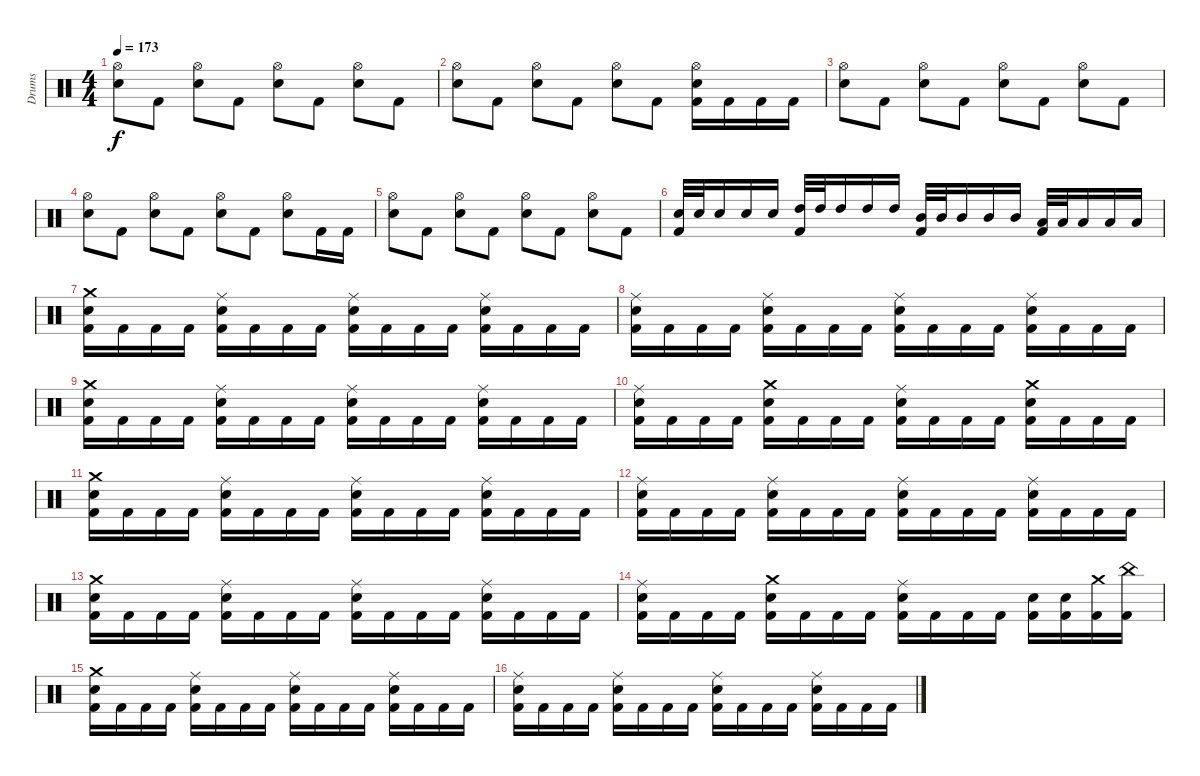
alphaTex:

\track ("Drums" "Drums") {instrument percussion}
\staff {score}
\articulation defaults
\ts (4 4)
\tempo 173
\clef neutral
\ks c
("Hi-Hat (open)" "Snare (hit) 2").8{dy f} "Kick (hit) 2".8 ("Hi-Hat (open)" "Snare (hit) 2").8 "Kick (hit) 2".8 ("Hi-Hat (open)" "Snare (hit) 2").8 "Kick (hit) 2".8 ("Hi-Hat (open)" "Snare (hit) 2").8 "Kick (hit) 2".8 |
("Hi-Hat (open)" "Snare (hit) 2").8 "Kick (hit) 2".8 ("Hi-Hat (open)" "Snare (hit) 2").8 "Kick (hit) 2".8 ("Hi-Hat (open)" "Snare (hit) 2").8 "Kick (hit) 2".8 ("Hi-Hat (open)" "Snare (hit) 2" "Kick (hit) 2").16 "Kick (hit) 2".16 "Kick (hit) 2".16 "Kick (hit) 2".16 |
("Hi-Hat (open)" "Snare (hit) 2").8 "Kick (hit) 2".8 ("Hi-Hat (open)" "Snare (hit) 2").8 "Kick (hit) 2".8 ("Hi-Hat (open)" "Snare (hit) 2").8 "Kick (hit) 2".8 ("Hi-Hat (open)" "Snare (hit) 2").8 "Kick (hit) 2".8 |
("Hi-Hat (open)" "Snare (hit) 2").8 "Kick (hit) 2".8 ("Hi-Hat (open)" "Snare (hit) 2").8 "Kick (hit) 2".8 ("Hi-Hat (open)" "Snare (hit) 2").8 "Kick (hit) 2".8 ("Hi-Hat (open)" "Snare (hit) 2").8 "Kick (hit) 2".16 "Kick (hit) 2".16 |
("Hi-Hat (open)" "Snare (hit) 2").8 "Kick (hit) 2".8 ("Hi-Hat (open)" "Snare (hit) 2").8 "Kick (hit) 2".8 ("Hi-Hat (open)" "Snare (hit) 2").8 "Kick (hit) 2".8 ("Hi-Hat (open)" "Snare (hit) 2").8 "Kick (hit) 2".8 |
("Snare (hit) 2" "Kick (hit) 2").32 "Snare (hit) 2".32 "Snare (hit) 2".16 "Snare (hit) 2".16 "Snare (hit) 2".16 ("High Tom (hit)" "Kick (hit) 2").32 "High Tom (hit)".32 "High Tom (hit)".16 "High Tom (hit)".16 "High Tom (hit)".16 ("Mid Tom (hit)" "Kick (hit) 2").32 "Mid Tom (hit)".32 "Mid Tom (hit)".16 "Mid Tom (hit)".16 "Mid Tom (hit)".16 ("Low Tom (hit)" "Kick (hit) 2").32 "Low Tom (hit)".32 "Low Tom (hit)".16 "Low Tom (hit)".16 "Low Tom (hit)".16 |
("Crash medium (hit)" "Snare (hit) 2" "Kick (hit) 2").16 "Kick (hit) 2".16 "Kick (hit) 2".16 "Kick (hit) 2".16 ("Ride (middle)" "Snare (hit) 2" "Kick (hit) 2").16 "Kick (hit) 2".16 "Kick (hit) 2".16 "Kick (hit) 2".16 ("Ride (middle)" "Snare (hit) 2" "Kick (hit) 2").16 "Kick (hit) 2".16 "Kick (hit) 2".16 "Kick (hit) 2".16 ("Ride (middle)" "Snare (hit) 2" "Kick (hit) 2").16 "Kick (hit) 2".16 "Kick (hit) 2".16 "Kick (hit) 2".16 |
("Ride (middle)" "Snare (hit) 2" "Kick (hit) 2").16 "Kick (hit) 2".16 "Kick (hit) 2".16 "Kick (hit) 2".16 ("Ride (middle)" "Snare (hit) 2" "Kick (hit) 2").16 "Kick (hit) 2".16 "Kick (hit) 2".16 "Kick (hit) 2".16 ("Ride (middle)" "Snare (hit) 2" "Kick (hit) 2").16 "Kick (hit) 2".16 "Kick (hit) 2".16 "Kick (hit) 2".16 ("Ride (middle)" "Snare (hit) 2" "Kick (hit) 2").16 "Kick (hit) 2".16 "Kick (hit) 2".16 "Kick (hit) 2".16 |
("Crash medium (hit)" "Snare (hit) 2" "Kick (hit) 2").16 "Kick (hit) 2".16 "Kick (hit) 2".16 "Kick (hit) 2".16 ("Ride (middle)" "Snare (hit) 2" "Kick (hit) 2").16 "Kick (hit) 2".16 "Kick (hit) 2".16 "Kick (hit) 2".16 ("Ride (middle)" "Snare (hit) 2" "Kick (hit) 2").16 "Kick (hit) 2".16 "Kick (hit) 2".16 "Kick (hit) 2".16 ("Ride (middle)" "Snare (hit) 2" "Kick (hit) 2").16 "Kick (hit) 2".16 "Kick (hit) 2".16 "Kick (hit) 2".16 |
("Ride (middle)" "Snare (hit) 2" "Kick (hit) 2").16 "Kick (hit) 2".16 "Kick (hit) 2".16 "Kick (hit) 2".16 ("Crash medium (hit)" "Snare (hit) 2" "Kick (hit) 2").16 "Kick (hit) 2".16 "Kick (hit) 2".16 "Kick (hit) 2".16 ("Ride (middle)" "Snare (hit) 2" "Kick (hit) 2").16 "Kick (hit) 2".16 "Kick (hit) 2".16 "Kick (hit) 2".16 ("Crash medium (hit)" "Snare (hit) 2" "Kick (hit) 2").16 "Kick (hit) 2".16 "Kick (hit) 2".16 "Kick (hit) 2".16 |
("Crash medium (hit)" "Snare (hit) 2" "Kick (hit) 2").16 "Kick (hit) 2".16 "Kick (hit) 2".16 "Kick (hit) 2".16 ("Ride (middle)" "Snare (hit) 2" "Kick (hit) 2").16 "Kick (hit) 2".16 "Kick (hit) 2".16 "Kick (hit) 2".16 ("Ride (middle)" "Snare (hit) 2" "Kick (hit) 2").16 "Kick (hit) 2".16 "Kick (hit) 2".16 "Kick (hit) 2".16 ("Ride (middle)" "Snare (hit) 2" "Kick (hit) 2").16 "Kick (hit) 2".16 "Kick (hit) 2".16 "Kick (hit) 2".16 |
("Ride (middle)" "Snare (hit) 2" "Kick (hit) 2").16 "Kick (hit) 2".16 "Kick (hit) 2".16 "Kick (hit) 2".16 ("Ride (middle)" "Snare (hit) 2" "Kick (hit) 2").16 "Kick (hit) 2".16 "Kick (hit) 2".16 "Kick (hit) 2".16 ("Ride (middle)" "Snare (hit) 2" "Kick (hit) 2").16 "Kick (hit) 2".16 "Kick (hit) 2".16 "Kick (hit) 2".16 ("Ride (middle)" "Snare (hit) 2" "Kick (hit) 2").16 "Kick (hit) 2".16 "Kick (hit) 2".16 "Kick (hit) 2".16 |
("Crash medium (hit)" "Snare (hit) 2" "Kick (hit) 2").16 "Kick (hit) 2".16 "Kick (hit) 2".16 "Kick (hit) 2".16 ("Ride (middle)" "Snare (hit) 2" "Kick (hit) 2").16 "Kick (hit) 2".16 "Kick (hit) 2".16 "Kick (hit) 2".16 ("Ride (middle)" "Snare (hit) 2" "Kick (hit) 2").16 "Kick (hit) 2".16 "Kick (hit) 2".16 "Kick (hit) 2".16 ("Ride (middle)" "Snare (hit) 2" "Kick (hit) 2").16 "Kick (hit) 2".16 "Kick (hit) 2".16 "Kick (hit) 2".16 |
("Ride (middle)" "Snare (hit) 2" "Kick (hit) 2").16 "Kick (hit) 2".16 "Kick (hit) 2".16 "Kick (hit) 2".16 ("Crash medium (hit)" "Snare (hit) 2" "Kick (hit) 2").16 "Kick (hit) 2".16 "Kick (hit) 2".16 "Kick (hit) 2".16 ("Ride (middle)" "Snare (hit) 2" "Kick (hit) 2").16 "Kick (hit) 2".16 "Kick (hit) 2".16 "Kick (hit) 2".16 ("Snare (hit) 2" "Kick (hit) 2").16 ("Snare (hit) 2" "Kick (hit) 2").16 ("Crash medium (hit)" "Kick (hit) 2").16 ("China (hit)" "Kick (hit) 2").16 |
("Crash medium (hit)" "Snare (hit) 2" "Kick (hit) 2").16 "Kick (hit) 2".16 "Kick (hit) 2".16 "Kick (hit) 2".16 ("Ride (middle)" "Snare (hit) 2" "Kick (hit) 2").16 "Kick (hit) 2".16 "Kick (hit) 2".16 "Kick (hit) 2".16 ("Ride (middle)" "Snare (hit) 2" "Kick (hit) 2").16 "Kick (hit) 2".16 "Kick (hit) 2".16 "Kick (hit) 2".16 ("Ride (middle)" "Snare (hit) 2" "Kick (hit) 2").16 "Kick (hit) 2".16 "Kick (hit) 2".16 "Kick (hit) 2".16 |
("Ride (middle)" "Snare (hit) 2" "Kick (hit) 2").16 "Kick (hit) 2".16 "Kick (hit) 2".16 "Kick (hit) 2".16 ("Ride (middle)" "Snare (hit) 2" "Kick (hit) 2").16 "Kick (hit) 2".16 "Kick (hit) 2".16 "Kick (hit) 2".16 ("Ride (middle)" "Snare (hit) 2" "Kick (hit) 2").16 "Kick (hit) 2".16 "Kick (hit) 2".16 "Kick (hit) 2".16 ("Ride (middle)" "Snare (hit) 2" "Kick (hit) 2").16 "Kick (hit) 2".16 "Kick (hit) 2".16 "Kick (hit) 2".16
